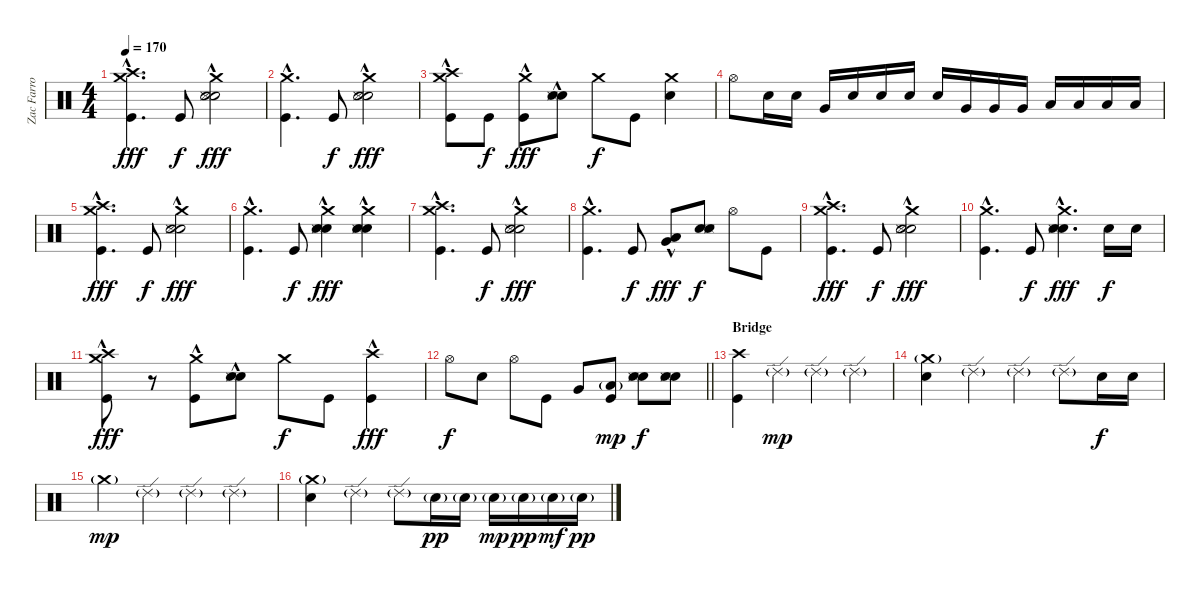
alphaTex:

\track ("Zac Farro (Drums)" "Zac Farro ") {instrument percussion}
\staff {score}
\articulation defaults
\ts (4 4)
\tempo 170
\clef neutral
\ks c
("Crash high (hit)"{hac} "Crash medium (hit)"{hac} "Kick (hit)"{hac}).4{d dy fff} "Kick (hit)".8{dy f} ("Crash medium (hit)"{hac} "Snare (hit) 2"{hac} "Snare (side stick) 3"{hac} "Electric Snare (hit)"{hac}).2{dy fff} |
("Crash medium (hit)"{hac} "Kick (hit)"{hac}).4{d} "Kick (hit)".8{dy f} ("Crash medium (hit)"{hac} "Snare (hit) 2"{hac} "Snare (side stick) 3"{hac} "Electric Snare (hit)"{hac}).2{dy fff} |
("Crash high (hit)"{hac} "Crash medium (hit)"{hac} "Kick (hit)"{hac}).8 "Kick (hit)".8{dy f} ("Crash medium (hit)"{hac} "Kick (hit)").8{dy fff} ("Snare (hit) 2"{hac} "Snare (side stick) 3"{hac} "Electric Snare (hit)"{hac}).8 "Crash medium (hit)".8{dy f} "Kick (hit)".8 ("Crash medium (hit)" "Electric Snare (hit)").4 |
"Hi-Hat (open)".8 "Electric Snare (hit)".16 "Electric Snare (hit)".16 "Very Low Tom (hit)".16 "Electric Snare (hit)".16 "Electric Snare (hit)".16 "Electric Snare (hit)".16 "Electric Snare (hit)".16 "Very Low Tom (hit)".16 "Very Low Tom (hit)".16 "Very Low Tom (hit)".16 "Low Floor Tom (hit)".16 "Low Floor Tom (hit)".16 "Low Floor Tom (hit)".16 "Low Floor Tom (hit)".16 |
("Crash high (hit)"{hac} "Crash medium (hit)"{hac} "Kick (hit)"{hac}).4{d dy fff} "Kick (hit)".8{dy f} ("Crash medium (hit)"{hac} "Snare (hit) 2"{hac} "Snare (side stick) 3"{hac} "Electric Snare (hit)"{hac}).2{dy fff} |
("Crash medium (hit)"{hac} "Kick (hit)"{hac}).4{d} "Kick (hit)".8{dy f} ("Crash medium (hit)"{hac} "Snare (hit) 2"{hac} "Snare (side stick) 3"{hac} "Electric Snare (hit)"{hac}).4{dy fff} ("Crash medium (hit)"{hac} "Snare (hit) 2"{hac} "Snare (side stick) 3"{hac} "Electric Snare (hit)"{hac}).4 |
("Crash high (hit)"{hac} "Crash medium (hit)"{hac} "Kick (hit)"{hac}).4{d} "Kick (hit)".8{dy f} ("Crash medium (hit)"{hac} "Snare (hit) 2"{hac} "Snare (side stick) 3"{hac} "Electric Snare (hit)"{hac}).2{dy fff} |
("Crash medium (hit)"{hac} "Kick (hit)"{hac}).4{d} "Kick (hit)".8{dy f} ("Very Low Tom (hit)"{hac} "Low Floor Tom (hit)"{hac}).8{dy fff} ("Snare (hit) 2" "Snare (side stick) 3" "Electric Snare (hit)").8{dy f} "Hi-Hat (open)".8 "Kick (hit)".8 |
("Crash high (hit)"{hac} "Crash medium (hit)"{hac} "Kick (hit)"{hac}).4{d dy fff} "Kick (hit)".8{dy f} ("Crash medium (hit)"{hac} "Snare (hit) 2"{hac} "Snare (side stick) 3"{hac} "Electric Snare (hit)"{hac}).2{dy fff} |
("Crash medium (hit)"{hac} "Kick (hit)"{hac}).4{d} "Kick (hit)".8{dy f} ("Crash medium (hit)"{hac} "Snare (hit) 2"{hac} "Snare (side stick) 3"{hac} "Electric Snare (hit)"{hac}).4{d dy fff} "Electric Snare (hit)".16{dy f} "Electric Snare (hit)".16 |
("Crash high (hit)"{hac} "Crash medium (hit)"{hac} "Kick (hit)"{hac}).8{dy fff} r.8 ("Crash medium (hit)"{hac} "Kick (hit)").8 ("Snare (hit) 2"{hac} "Snare (side stick) 3"{hac} "Electric Snare (hit)"{hac}).8 "Crash medium (hit)".8{dy f} "Kick (hit)".8 ("Crash high (hit)"{hac} "Kick (hit)"{hac}).4{dy fff} |
\barLineRight lightlight "Hi-Hat (open)".8{dy f} "Electric Snare (hit)".8 "Hi-Hat (open)".8 "Kick (hit)".8 "Very Low Tom (hit)".8
("Low Floor Tom (hit)"{g} "Kick (hit)").8{dy mp} ("Snare (hit) 2" "Snare (side stick) 3" "Electric Snare (hit)").8{dy f} ("Snare (hit) 2" "Snare (side stick) 3" "Electric Snare (hit)").8 |
\section ("" "Bridge")
("Crash high (hit)" "Kick (hit)").4 "Ride (edge) 2"{g}.4{dy mp} "Ride (edge) 2"{g}.4 "Ride (edge) 2"{g}.4 |
("Crash medium (hit)"{g} "Electric Snare (hit)").4 "Ride (edge) 2"{g}.4 "Ride (edge) 2"{g}.4 "Ride (edge) 2"{g}.8 "Electric Snare (hit)".16{dy f} "Electric Snare (hit)".16 |
"Crash medium (hit)"{g}.4{dy mp} "Ride (edge) 2"{g}.4 "Ride (edge) 2"{g}.4 "Ride (edge) 2"{g}.4 |
("Crash medium (hit)"{g} "Electric Snare (hit)").4 "Ride (edge) 2"{g}.4 "Ride (edge) 2"{g}.8 "Electric Snare (hit)"{g}.16{dy pp} "Electric Snare (hit)"{g}.16 "Electric Snare (hit)"{g}.16{dy mp} "Electric Snare (hit)"{g}.16{dy pp} "Electric Snare (hit)"{g}.16{dy mf} "Electric Snare (hit)"{g}.16{dy pp}
